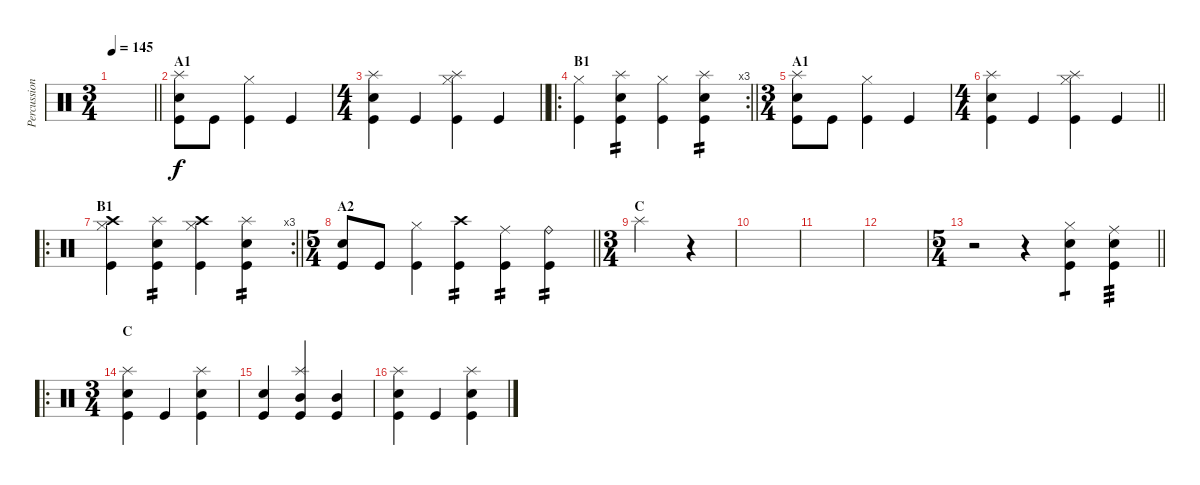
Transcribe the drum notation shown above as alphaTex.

\track ("Percussion" "Percussion") {instrument percussion}
\staff {score}
\articulation defaults
\ts (3 4)
\tempo 145
\clef neutral
\barLineRight lightlight
\ks c
|
\section ("" "A1")
("Kick (hit)" "Snare (hit) 2" "Splash (hit)").8 "Kick (hit)".8 ("Kick (hit)" "Hi-Hat (closed)").4 "Kick (hit)".4 |
\ts (4 4)
\barLineRight lightlight
("Kick (hit)" "Snare (hit) 2" "Splash (hit)").4 "Kick (hit)".4 ("Kick (hit)" "Hi-Hat (closed)" "Splash (hit)").4 "Kick (hit)".4 |
\ro
\rc 3
\section ("" "B1")
\barLineRight lightlight
("Kick (hit)" "Hi-Hat (closed)").4 ("Kick (hit)" "Snare (hit) 2" "Splash (hit)").4{tp 2} ("Kick (hit)" "Hi-Hat (closed)").4 ("Kick (hit)" "Snare (hit) 2" "Splash (hit)").4{tp 2} |
\ts (3 4)
\section ("" "A1")
("Kick (hit)" "Snare (hit) 2" "Splash (hit)").8 "Kick (hit)".8 ("Kick (hit)" "Hi-Hat (closed)").4 "Kick (hit)".4 |
\ts (4 4)
\barLineRight lightlight
("Kick (hit)" "Snare (hit) 2" "Splash (hit)").4 "Kick (hit)".4 ("Kick (hit)" "Hi-Hat (closed)" "Splash (hit)").4 "Kick (hit)".4 |
\ro
\rc 3
\section ("" "B1")
\barLineRight lightlight
("Kick (hit)" "Hi-Hat (closed)" "Crash high (hit)").4 ("Kick (hit)" "Snare (hit) 2" "Splash (hit)").4{tp 2} ("Kick (hit)" "Hi-Hat (closed)" "Crash high (hit)").4 ("Kick (hit)" "Snare (hit) 2" "Splash (hit)").4{tp 2} |
\ts (5 4)
\section ("" "A2")
\barLineRight lightlight
("Kick (hit)" "Snare (hit) 2").8 "Kick (hit)".8 ("Kick (hit)" "Hi-Hat (closed)").4 ("Kick (hit)" "Crash high (hit)").4{tp 2} ("Kick (hit)" "Ride (middle)").4{tp 2} ("Kick (hit)" "Ride (bell)").4{tp 2} |
\ts (3 4)
\section ("" "C")
"Splash (hit)".2 r.4 |
|
|
|
\ts (5 4)
\barLineRight lightlight
r.2 r.4 ("Kick (hit)" "Snare (hit) 2" "Hi-Hat (closed)").4{tp 1} ("Kick (hit)" "Snare (hit) 2" "Ride (middle)").4{tp 3} |
\ro
\ts (3 4)
\section ("" "C")
("Kick (hit)" "Snare (hit) 2" "Splash (hit)").4 "Kick (hit)".4 ("Kick (hit)" "Snare (hit) 2" "Splash (hit)").4 |
("Snare (hit) 2" "Kick (hit)").4 ("Mid Tom (hit)" "Kick (hit)" "Splash (hit)").4 ("Mid Tom (hit)" "Kick (hit)").4 |
("Kick (hit)" "Snare (hit) 2" "Splash (hit)").4 "Kick (hit)".4 ("Kick (hit)" "Snare (hit) 2" "Splash (hit)").4
